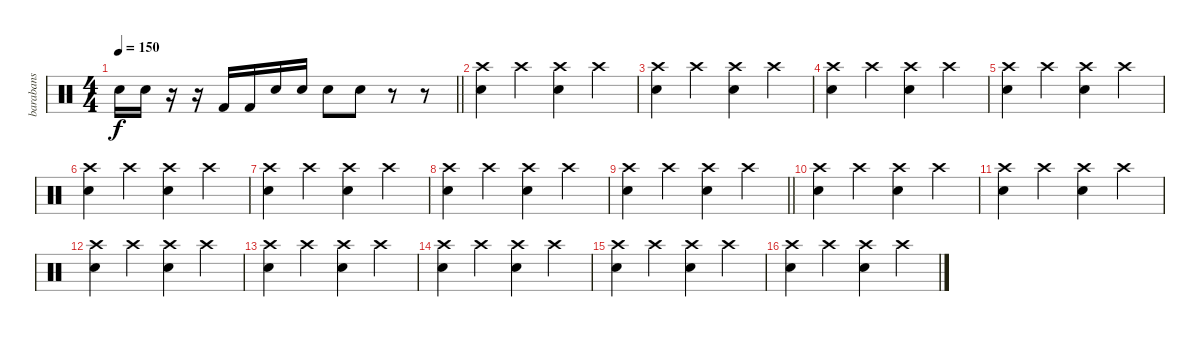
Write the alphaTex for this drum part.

\track ("barabans" "barabans") {instrument percussion}
\staff {score}
\articulation defaults
\ts (4 4)
\tempo 150
\clef neutral
\barLineRight lightlight
\ks c "Snare (hit) 2".16{dy f} "Snare (hit) 2".16
r.16 r.16 "Kick (hit) 2".16 "Kick (hit) 2".16 "Snare (hit) 2".16 "Snare (hit) 2".16 "Snare (hit) 2".8 "Snare (hit) 2".8 r.8 r.8 |
("Crash high (hit)" "Snare (hit) 2").4 "Crash high (hit)".4 ("Crash high (hit)" "Snare (hit) 2").4 "Crash high (hit)".4 |
("Crash high (hit)" "Snare (hit) 2").4 "Crash high (hit)".4 ("Crash high (hit)" "Snare (hit) 2").4 "Crash high (hit)".4 |
("Crash high (hit)" "Snare (hit) 2").4 "Crash high (hit)".4 ("Crash high (hit)" "Snare (hit) 2").4 "Crash high (hit)".4 |
("Crash high (hit)" "Snare (hit) 2").4 "Crash high (hit)".4 ("Crash high (hit)" "Snare (hit) 2").4 "Crash high (hit)".4 |
("Crash high (hit)" "Snare (hit) 2").4 "Crash high (hit)".4 ("Crash high (hit)" "Snare (hit) 2").4 "Crash high (hit)".4 |
("Crash high (hit)" "Snare (hit) 2").4 "Crash high (hit)".4 ("Crash high (hit)" "Snare (hit) 2").4 "Crash high (hit)".4 |
("Crash high (hit)" "Snare (hit) 2").4 "Crash high (hit)".4 ("Crash high (hit)" "Snare (hit) 2").4 "Crash high (hit)".4 |
\barLineRight lightlight
("Crash high (hit)" "Snare (hit) 2").4 "Crash high (hit)".4 ("Crash high (hit)" "Snare (hit) 2").4 "Crash high (hit)".4 |
("Crash high (hit)" "Snare (hit) 2").4 "Crash high (hit)".4 ("Crash high (hit)" "Snare (hit) 2").4 "Crash high (hit)".4 |
("Crash high (hit)" "Snare (hit) 2").4 "Crash high (hit)".4 ("Crash high (hit)" "Snare (hit) 2").4 "Crash high (hit)".4 |
("Crash high (hit)" "Snare (hit) 2").4 "Crash high (hit)".4 ("Crash high (hit)" "Snare (hit) 2").4 "Crash high (hit)".4 |
("Crash high (hit)" "Snare (hit) 2").4 "Crash high (hit)".4 ("Crash high (hit)" "Snare (hit) 2").4 "Crash high (hit)".4 |
("Crash high (hit)" "Snare (hit) 2").4 "Crash high (hit)".4 ("Crash high (hit)" "Snare (hit) 2").4 "Crash high (hit)".4 |
("Crash high (hit)" "Snare (hit) 2").4 "Crash high (hit)".4 ("Crash high (hit)" "Snare (hit) 2").4 "Crash high (hit)".4 |
("Crash high (hit)" "Snare (hit) 2").4 "Crash high (hit)".4 ("Crash high (hit)" "Snare (hit) 2").4 "Crash high (hit)".4
